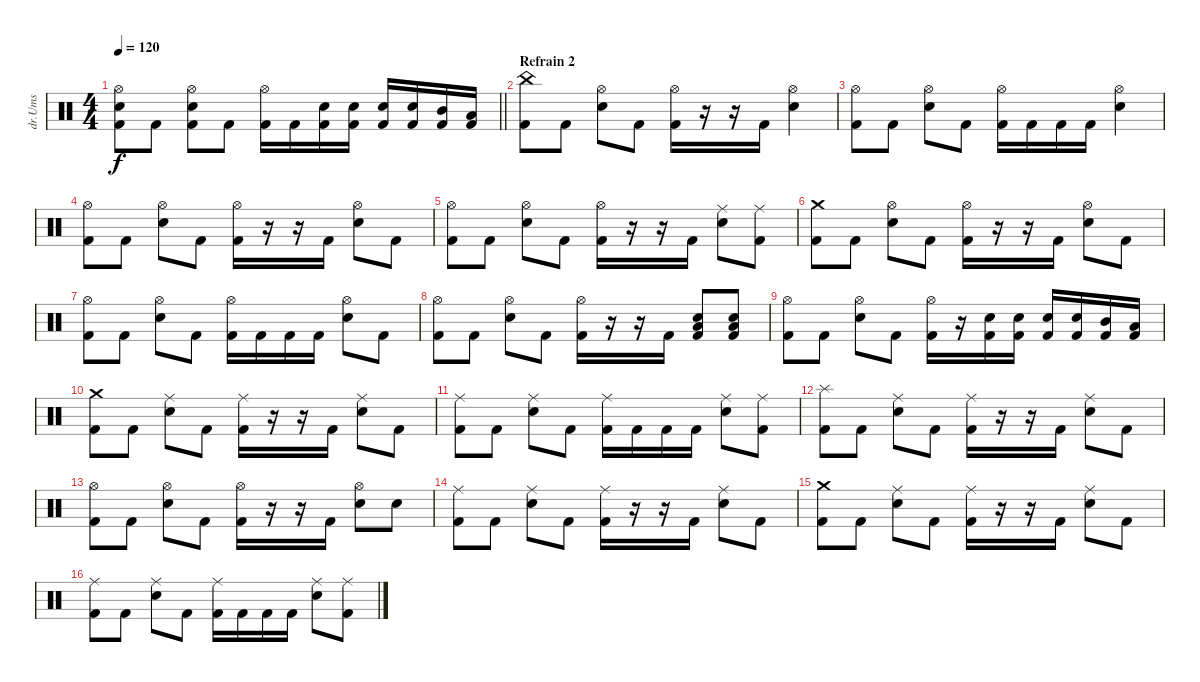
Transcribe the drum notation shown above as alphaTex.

\track ("dr.Ums" "dr.Ums") {instrument percussion}
\staff {score}
\articulation defaults
\ts (4 4)
\tempo 120
\clef neutral
\barLineRight lightlight
\ks c
("Kick (hit) 2" "Snare (hit) 2" "Hi-Hat (open)").8{dy f} "Kick (hit) 2".8 ("Kick (hit) 2" "Snare (hit) 2" "Hi-Hat (open)").8 "Kick (hit) 2".8 ("Kick (hit) 2" "Hi-Hat (open)").16 "Kick (hit) 2".16 ("Snare (hit) 2" "Kick (hit) 2").16 ("Snare (hit) 2" "Kick (hit) 2").16 ("Snare (hit) 2" "Kick (hit) 2").16 ("Snare (hit) 2" "Kick (hit) 2").16 ("Mid Tom (hit)" "Kick (hit) 2").16 ("Low Tom (hit)" "Kick (hit) 2").16 |
\section ("" "Refrain 2")
("Kick (hit) 2" "China (hit)").8 "Kick (hit) 2".8 ("Snare (hit) 2" "Hi-Hat (open)").8 "Kick (hit) 2".8 ("Kick (hit) 2" "Hi-Hat (open)").16 r.16 r.16 "Kick (hit) 2".16 ("Snare (hit) 2" "Hi-Hat (open)").4 |
("Kick (hit) 2" "Hi-Hat (open)").8 "Kick (hit) 2".8 ("Snare (hit) 2" "Hi-Hat (open)").8 "Kick (hit) 2".8 ("Kick (hit) 2" "Hi-Hat (open)").16 "Kick (hit) 2".16 "Kick (hit) 2".16 "Kick (hit) 2".16 ("Snare (hit) 2" "Hi-Hat (open)").4 |
("Kick (hit) 2" "Hi-Hat (open)").8 "Kick (hit) 2".8 ("Snare (hit) 2" "Hi-Hat (open)").8 "Kick (hit) 2".8 ("Kick (hit) 2" "Hi-Hat (open)").16 r.16 r.16 "Kick (hit) 2".16 ("Snare (hit) 2" "Hi-Hat (open)").8 "Kick (hit) 2".8 |
("Kick (hit) 2" "Hi-Hat (open)").8 "Kick (hit) 2".8 ("Snare (hit) 2" "Hi-Hat (open)").8 "Kick (hit) 2".8 ("Kick (hit) 2" "Hi-Hat (open)").16 r.16 r.16 "Kick (hit) 2".16 ("Snare (hit) 2" "Ride (middle)").8 ("Kick (hit) 2" "Ride (middle)").8 |
("Kick (hit) 2" "Crash medium (hit)").8 "Kick (hit) 2".8 ("Snare (hit) 2" "Hi-Hat (open)").8 "Kick (hit) 2".8 ("Kick (hit) 2" "Hi-Hat (open)").16 r.16 r.16 "Kick (hit) 2".16 ("Snare (hit) 2" "Hi-Hat (open)").8 "Kick (hit) 2".8 |
("Kick (hit) 2" "Hi-Hat (open)").8 "Kick (hit) 2".8 ("Snare (hit) 2" "Hi-Hat (open)").8 "Kick (hit) 2".8 ("Kick (hit) 2" "Hi-Hat (open)").16 "Kick (hit) 2".16 "Kick (hit) 2".16 "Kick (hit) 2".16 ("Snare (hit) 2" "Hi-Hat (open)").8 "Kick (hit) 2".8 |
("Kick (hit) 2" "Hi-Hat (open)").8 "Kick (hit) 2".8 ("Snare (hit) 2" "Hi-Hat (open)").8 "Kick (hit) 2".8 ("Kick (hit) 2" "Hi-Hat (open)").16 r.16 r.16 "Kick (hit) 2".16 ("Kick (hit) 2" "Low Tom (hit)" "Snare (hit) 2").8 ("Kick (hit) 2" "Low Tom (hit)" "Snare (hit) 2").8 |
("Kick (hit) 2" "Hi-Hat (open)").8 "Kick (hit) 2".8 ("Snare (hit) 2" "Hi-Hat (open)").8 "Kick (hit) 2".8 ("Kick (hit) 2" "Hi-Hat (open)").16 r.16 ("Snare (hit) 2" "Kick (hit) 2").16 ("Snare (hit) 2" "Kick (hit) 2").16 ("Snare (hit) 2" "Kick (hit) 2").16 ("Snare (hit) 2" "Kick (hit) 2").16 ("Mid Tom (hit)" "Kick (hit) 2").16 ("Low Tom (hit)" "Kick (hit) 2").16 |
("Kick (hit) 2" "Crash medium (hit)").8 "Kick (hit) 2".8 ("Snare (hit) 2" "Ride (middle)").8 "Kick (hit) 2".8 ("Kick (hit) 2" "Ride (middle)").16 r.16 r.16 "Kick (hit) 2".16 ("Snare (hit) 2" "Ride (middle)").8 "Kick (hit) 2".8 |
("Kick (hit) 2" "Ride (middle)").8 "Kick (hit) 2".8 ("Snare (hit) 2" "Ride (middle)").8 "Kick (hit) 2".8 ("Kick (hit) 2" "Ride (middle)").16 "Kick (hit) 2".16 "Kick (hit) 2".16 "Kick (hit) 2".16 ("Snare (hit) 2" "Ride (middle)").8 ("Kick (hit) 2" "Ride (middle)").8 |
("Kick (hit) 2" "Splash (hit)").8 "Kick (hit) 2".8 ("Snare (hit) 2" "Ride (middle)").8 "Kick (hit) 2".8 ("Kick (hit) 2" "Ride (middle)").16 r.16 r.16 "Kick (hit) 2".16 ("Snare (hit) 2" "Ride (middle)").8 "Kick (hit) 2".8 |
("Kick (hit) 2" "Hi-Hat (open)").8 "Kick (hit) 2".8 ("Snare (hit) 2" "Hi-Hat (open)").8 "Kick (hit) 2".8 ("Kick (hit) 2" "Hi-Hat (open)").16 r.16 r.16 "Kick (hit) 2".16 ("Snare (hit) 2" "Hi-Hat (open)").8 "Snare (hit) 2".8 |
("Kick (hit) 2" "Ride (middle)").8 "Kick (hit) 2".8 ("Snare (hit) 2" "Ride (middle)").8 "Kick (hit) 2".8 ("Kick (hit) 2" "Ride (middle)").16 r.16 r.16 "Kick (hit) 2".16 ("Snare (hit) 2" "Ride (middle)").8 "Kick (hit) 2".8 |
("Kick (hit) 2" "Crash medium (hit)").8 "Kick (hit) 2".8 ("Snare (hit) 2" "Ride (middle)").8 "Kick (hit) 2".8 ("Kick (hit) 2" "Ride (middle)").16 r.16 r.16 "Kick (hit) 2".16 ("Snare (hit) 2" "Ride (middle)").8 "Kick (hit) 2".8 |
("Kick (hit) 2" "Ride (middle)").8 "Kick (hit) 2".8 ("Snare (hit) 2" "Ride (middle)").8 "Kick (hit) 2".8 ("Kick (hit) 2" "Ride (middle)").16 "Kick (hit) 2".16 "Kick (hit) 2".16 "Kick (hit) 2".16 ("Snare (hit) 2" "Ride (middle)").8 ("Kick (hit) 2" "Ride (middle)").8
